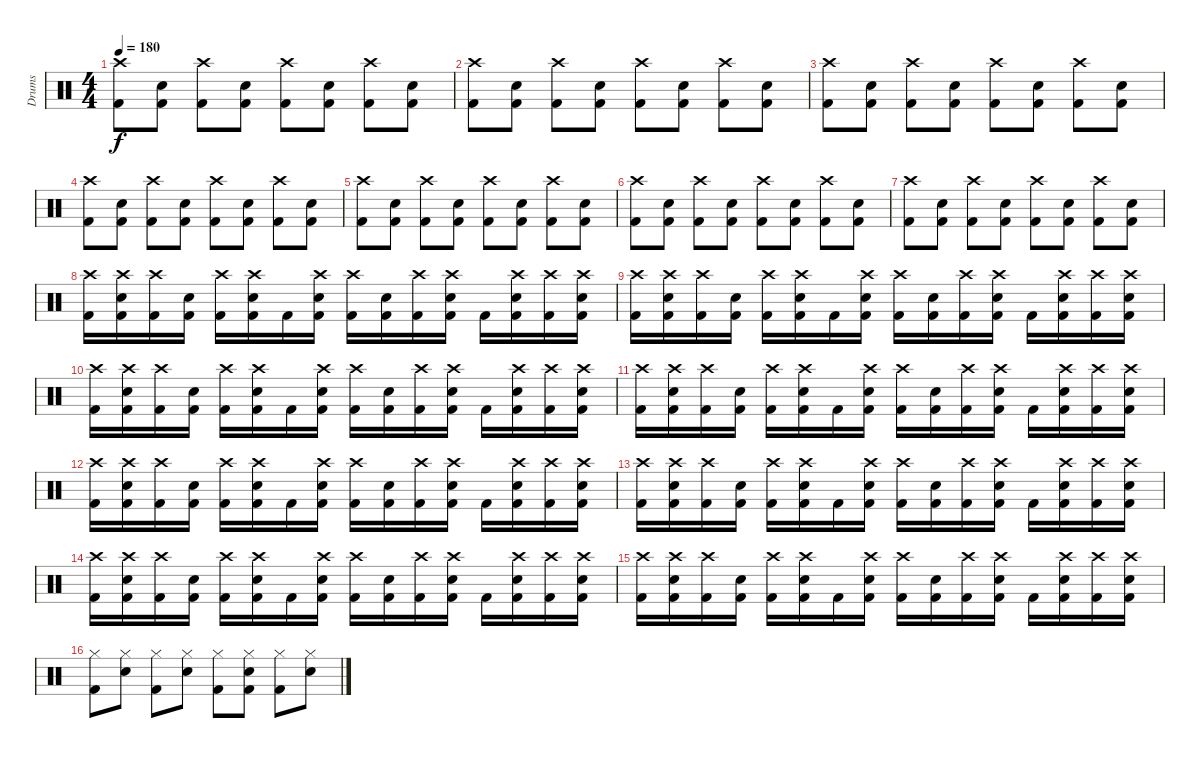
\track ("Drums" "Drums") {instrument percussion}
\staff {score}
\articulation defaults
\ts (4 4)
\tempo 180
\clef neutral
\ks c
("Crash high (hit)" "Kick (hit) 2").8{dy f} ("Snare (hit) 2" "Kick (hit) 2").8 ("Crash high (hit)" "Kick (hit) 2").8 ("Snare (hit) 2" "Kick (hit) 2").8 ("Crash high (hit)" "Kick (hit) 2").8 ("Snare (hit) 2" "Kick (hit) 2").8 ("Crash high (hit)" "Kick (hit) 2").8 ("Snare (hit) 2" "Kick (hit) 2").8 |
("Crash high (hit)" "Kick (hit) 2").8 ("Snare (hit) 2" "Kick (hit) 2").8 ("Crash high (hit)" "Kick (hit) 2").8 ("Snare (hit) 2" "Kick (hit) 2").8 ("Crash high (hit)" "Kick (hit) 2").8 ("Snare (hit) 2" "Kick (hit) 2").8 ("Crash high (hit)" "Kick (hit) 2").8 ("Snare (hit) 2" "Kick (hit) 2").8 |
("Crash high (hit)" "Kick (hit) 2").8 ("Snare (hit) 2" "Kick (hit) 2").8 ("Crash high (hit)" "Kick (hit) 2").8 ("Snare (hit) 2" "Kick (hit) 2").8 ("Crash high (hit)" "Kick (hit) 2").8 ("Snare (hit) 2" "Kick (hit) 2").8 ("Crash high (hit)" "Kick (hit) 2").8 ("Snare (hit) 2" "Kick (hit) 2").8 |
("Crash high (hit)" "Kick (hit) 2").8 ("Snare (hit) 2" "Kick (hit) 2").8 ("Crash high (hit)" "Kick (hit) 2").8 ("Snare (hit) 2" "Kick (hit) 2").8 ("Crash high (hit)" "Kick (hit) 2").8 ("Snare (hit) 2" "Kick (hit) 2").8 ("Crash high (hit)" "Kick (hit) 2").8 ("Snare (hit) 2" "Kick (hit) 2").8 |
("Crash high (hit)" "Kick (hit) 2").8 ("Snare (hit) 2" "Kick (hit) 2").8 ("Crash high (hit)" "Kick (hit) 2").8 ("Snare (hit) 2" "Kick (hit) 2").8 ("Crash high (hit)" "Kick (hit) 2").8 ("Snare (hit) 2" "Kick (hit) 2").8 ("Crash high (hit)" "Kick (hit) 2").8 ("Snare (hit) 2" "Kick (hit) 2").8 |
("Crash high (hit)" "Kick (hit) 2").8 ("Snare (hit) 2" "Kick (hit) 2").8 ("Crash high (hit)" "Kick (hit) 2").8 ("Snare (hit) 2" "Kick (hit) 2").8 ("Crash high (hit)" "Kick (hit) 2").8 ("Snare (hit) 2" "Kick (hit) 2").8 ("Crash high (hit)" "Kick (hit) 2").8 ("Snare (hit) 2" "Kick (hit) 2").8 |
("Crash high (hit)" "Kick (hit) 2").8 ("Snare (hit) 2" "Kick (hit) 2").8 ("Crash high (hit)" "Kick (hit) 2").8 ("Snare (hit) 2" "Kick (hit) 2").8 ("Crash high (hit)" "Kick (hit) 2").8 ("Snare (hit) 2" "Kick (hit) 2").8 ("Crash high (hit)" "Kick (hit) 2").8 ("Snare (hit) 2" "Kick (hit) 2").8 |
("Crash high (hit)" "Kick (hit) 2").16 ("Crash high (hit)" "Snare (hit) 2" "Kick (hit) 2").16 ("Crash high (hit)" "Kick (hit) 2").16 ("Snare (hit) 2" "Kick (hit) 2").16 ("Crash high (hit)" "Kick (hit) 2").16 ("Crash high (hit)" "Snare (hit) 2" "Kick (hit) 2").16 "Kick (hit) 2".16 ("Crash high (hit)" "Snare (hit) 2" "Kick (hit) 2").16 ("Crash high (hit)" "Kick (hit) 2").16 ("Snare (hit) 2" "Kick (hit) 2").16 ("Crash high (hit)" "Kick (hit) 2").16 ("Crash high (hit)" "Snare (hit) 2" "Kick (hit) 2").16 "Kick (hit) 2".16 ("Crash high (hit)" "Snare (hit) 2" "Kick (hit) 2").16 ("Crash high (hit)" "Kick (hit) 2").16 ("Crash high (hit)" "Snare (hit) 2" "Kick (hit) 2").16 |
("Crash high (hit)" "Kick (hit) 2").16 ("Crash high (hit)" "Snare (hit) 2" "Kick (hit) 2").16 ("Crash high (hit)" "Kick (hit) 2").16 ("Snare (hit) 2" "Kick (hit) 2").16 ("Crash high (hit)" "Kick (hit) 2").16 ("Crash high (hit)" "Snare (hit) 2" "Kick (hit) 2").16 "Kick (hit) 2".16 ("Crash high (hit)" "Snare (hit) 2" "Kick (hit) 2").16 ("Crash high (hit)" "Kick (hit) 2").16 ("Snare (hit) 2" "Kick (hit) 2").16 ("Crash high (hit)" "Kick (hit) 2").16 ("Crash high (hit)" "Snare (hit) 2" "Kick (hit) 2").16 "Kick (hit) 2".16 ("Crash high (hit)" "Snare (hit) 2" "Kick (hit) 2").16 ("Crash high (hit)" "Kick (hit) 2").16 ("Crash high (hit)" "Snare (hit) 2" "Kick (hit) 2").16 |
("Crash high (hit)" "Kick (hit) 2").16 ("Crash high (hit)" "Snare (hit) 2" "Kick (hit) 2").16 ("Crash high (hit)" "Kick (hit) 2").16 ("Snare (hit) 2" "Kick (hit) 2").16 ("Crash high (hit)" "Kick (hit) 2").16 ("Crash high (hit)" "Snare (hit) 2" "Kick (hit) 2").16 "Kick (hit) 2".16 ("Crash high (hit)" "Snare (hit) 2" "Kick (hit) 2").16 ("Crash high (hit)" "Kick (hit) 2").16 ("Snare (hit) 2" "Kick (hit) 2").16 ("Crash high (hit)" "Kick (hit) 2").16 ("Crash high (hit)" "Snare (hit) 2" "Kick (hit) 2").16 "Kick (hit) 2".16 ("Crash high (hit)" "Snare (hit) 2" "Kick (hit) 2").16 ("Crash high (hit)" "Kick (hit) 2").16 ("Crash high (hit)" "Snare (hit) 2" "Kick (hit) 2").16 |
("Crash high (hit)" "Kick (hit) 2").16 ("Crash high (hit)" "Snare (hit) 2" "Kick (hit) 2").16 ("Crash high (hit)" "Kick (hit) 2").16 ("Snare (hit) 2" "Kick (hit) 2").16 ("Crash high (hit)" "Kick (hit) 2").16 ("Crash high (hit)" "Snare (hit) 2" "Kick (hit) 2").16 "Kick (hit) 2".16 ("Crash high (hit)" "Snare (hit) 2" "Kick (hit) 2").16 ("Crash high (hit)" "Kick (hit) 2").16 ("Snare (hit) 2" "Kick (hit) 2").16 ("Crash high (hit)" "Kick (hit) 2").16 ("Crash high (hit)" "Snare (hit) 2" "Kick (hit) 2").16 "Kick (hit) 2".16 ("Crash high (hit)" "Snare (hit) 2" "Kick (hit) 2").16 ("Crash high (hit)" "Kick (hit) 2").16 ("Crash high (hit)" "Snare (hit) 2" "Kick (hit) 2").16 |
("Crash high (hit)" "Kick (hit) 2").16 ("Crash high (hit)" "Snare (hit) 2" "Kick (hit) 2").16 ("Crash high (hit)" "Kick (hit) 2").16 ("Snare (hit) 2" "Kick (hit) 2").16 ("Crash high (hit)" "Kick (hit) 2").16 ("Crash high (hit)" "Snare (hit) 2" "Kick (hit) 2").16 "Kick (hit) 2".16 ("Crash high (hit)" "Snare (hit) 2" "Kick (hit) 2").16 ("Crash high (hit)" "Kick (hit) 2").16 ("Snare (hit) 2" "Kick (hit) 2").16 ("Crash high (hit)" "Kick (hit) 2").16 ("Crash high (hit)" "Snare (hit) 2" "Kick (hit) 2").16 "Kick (hit) 2".16 ("Crash high (hit)" "Snare (hit) 2" "Kick (hit) 2").16 ("Crash high (hit)" "Kick (hit) 2").16 ("Crash high (hit)" "Snare (hit) 2" "Kick (hit) 2").16 |
("Crash high (hit)" "Kick (hit) 2").16 ("Crash high (hit)" "Snare (hit) 2" "Kick (hit) 2").16 ("Crash high (hit)" "Kick (hit) 2").16 ("Snare (hit) 2" "Kick (hit) 2").16 ("Crash high (hit)" "Kick (hit) 2").16 ("Crash high (hit)" "Snare (hit) 2" "Kick (hit) 2").16 "Kick (hit) 2".16 ("Crash high (hit)" "Snare (hit) 2" "Kick (hit) 2").16 ("Crash high (hit)" "Kick (hit) 2").16 ("Snare (hit) 2" "Kick (hit) 2").16 ("Crash high (hit)" "Kick (hit) 2").16 ("Crash high (hit)" "Snare (hit) 2" "Kick (hit) 2").16 "Kick (hit) 2".16 ("Crash high (hit)" "Snare (hit) 2" "Kick (hit) 2").16 ("Crash high (hit)" "Kick (hit) 2").16 ("Crash high (hit)" "Snare (hit) 2" "Kick (hit) 2").16 |
("Crash high (hit)" "Kick (hit) 2").16 ("Crash high (hit)" "Snare (hit) 2" "Kick (hit) 2").16 ("Crash high (hit)" "Kick (hit) 2").16 ("Snare (hit) 2" "Kick (hit) 2").16 ("Crash high (hit)" "Kick (hit) 2").16 ("Crash high (hit)" "Snare (hit) 2" "Kick (hit) 2").16 "Kick (hit) 2".16 ("Crash high (hit)" "Snare (hit) 2" "Kick (hit) 2").16 ("Crash high (hit)" "Kick (hit) 2").16 ("Snare (hit) 2" "Kick (hit) 2").16 ("Crash high (hit)" "Kick (hit) 2").16 ("Crash high (hit)" "Snare (hit) 2" "Kick (hit) 2").16 "Kick (hit) 2".16 ("Crash high (hit)" "Snare (hit) 2" "Kick (hit) 2").16 ("Crash high (hit)" "Kick (hit) 2").16 ("Crash high (hit)" "Snare (hit) 2" "Kick (hit) 2").16 |
("Crash high (hit)" "Kick (hit) 2").16 ("Crash high (hit)" "Snare (hit) 2" "Kick (hit) 2").16 ("Crash high (hit)" "Kick (hit) 2").16 ("Snare (hit) 2" "Kick (hit) 2").16 ("Crash high (hit)" "Kick (hit) 2").16 ("Crash high (hit)" "Snare (hit) 2" "Kick (hit) 2").16 "Kick (hit) 2".16 ("Crash high (hit)" "Snare (hit) 2" "Kick (hit) 2").16 ("Crash high (hit)" "Kick (hit) 2").16 ("Snare (hit) 2" "Kick (hit) 2").16 ("Crash high (hit)" "Kick (hit) 2").16 ("Crash high (hit)" "Snare (hit) 2" "Kick (hit) 2").16 "Kick (hit) 2".16 ("Crash high (hit)" "Snare (hit) 2" "Kick (hit) 2").16 ("Crash high (hit)" "Kick (hit) 2").16 ("Crash high (hit)" "Snare (hit) 2" "Kick (hit) 2").16 |
("Hi-Hat (closed)" "Kick (hit) 2").8 ("Hi-Hat (closed)" "Snare (hit) 2").8 ("Hi-Hat (closed)" "Kick (hit) 2").8 ("Hi-Hat (closed)" "Snare (hit) 2").8 ("Hi-Hat (closed)" "Kick (hit) 2").8 ("Hi-Hat (closed)" "Snare (hit) 2" "Kick (hit) 2").8 ("Hi-Hat (closed)" "Kick (hit) 2").8 ("Hi-Hat (closed)" "Snare (hit) 2").8
